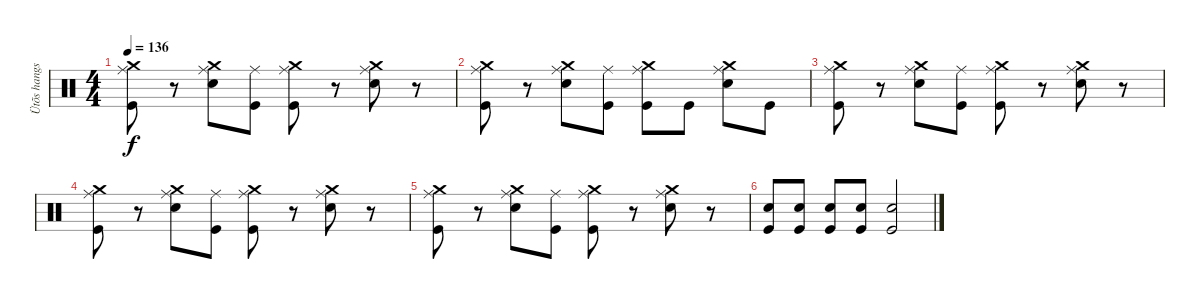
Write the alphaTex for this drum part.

\track ("Ütõs hangszer" "Ütõs hangs") {instrument percussion}
\staff {score}
\articulation defaults
\ts (4 4)
\tempo 136
\clef neutral
\ks c
("Crash medium (hit)" "Ride (middle)" "Kick (hit)").8{dy f} r.8 ("Crash medium (hit)" "Ride (middle)" "Electric Snare (hit)").8 ("Ride (middle)" "Kick (hit)").8 ("Crash medium (hit)" "Ride (middle)" "Kick (hit)").8 r.8 ("Crash medium (hit)" "Ride (middle)" "Electric Snare (hit)").8 r.8 |
("Crash medium (hit)" "Ride (middle)" "Kick (hit)").8 r.8 ("Crash medium (hit)" "Ride (middle)" "Electric Snare (hit)").8 ("Ride (middle)" "Kick (hit)").8 ("Crash medium (hit)" "Ride (middle)" "Kick (hit)").8 "Kick (hit)".8 ("Crash medium (hit)" "Ride (middle)" "Electric Snare (hit)").8 "Kick (hit)".8 |
("Crash medium (hit)" "Ride (middle)" "Kick (hit)").8 r.8 ("Crash medium (hit)" "Ride (middle)" "Electric Snare (hit)").8 ("Ride (middle)" "Kick (hit)").8 ("Crash medium (hit)" "Ride (middle)" "Kick (hit)").8 r.8 ("Crash medium (hit)" "Ride (middle)" "Electric Snare (hit)").8 r.8 |
("Crash medium (hit)" "Ride (middle)" "Kick (hit)").8 r.8 ("Crash medium (hit)" "Ride (middle)" "Electric Snare (hit)").8 ("Ride (middle)" "Kick (hit)").8 ("Crash medium (hit)" "Ride (middle)" "Kick (hit)").8 r.8 ("Crash medium (hit)" "Ride (middle)" "Electric Snare (hit)").8 r.8 |
("Crash medium (hit)" "Ride (middle)" "Kick (hit)").8 r.8 ("Crash medium (hit)" "Ride (middle)" "Electric Snare (hit)").8 ("Ride (middle)" "Kick (hit)").8 ("Crash medium (hit)" "Ride (middle)" "Kick (hit)").8 r.8 ("Crash medium (hit)" "Ride (middle)" "Electric Snare (hit)").8 r.8 |
("Electric Snare (hit)" "Kick (hit)").8 ("Electric Snare (hit)" "Kick (hit)").8 ("Electric Snare (hit)" "Kick (hit)").8 ("Electric Snare (hit)" "Kick (hit)").8 ("Electric Snare (hit)" "Kick (hit)").2
